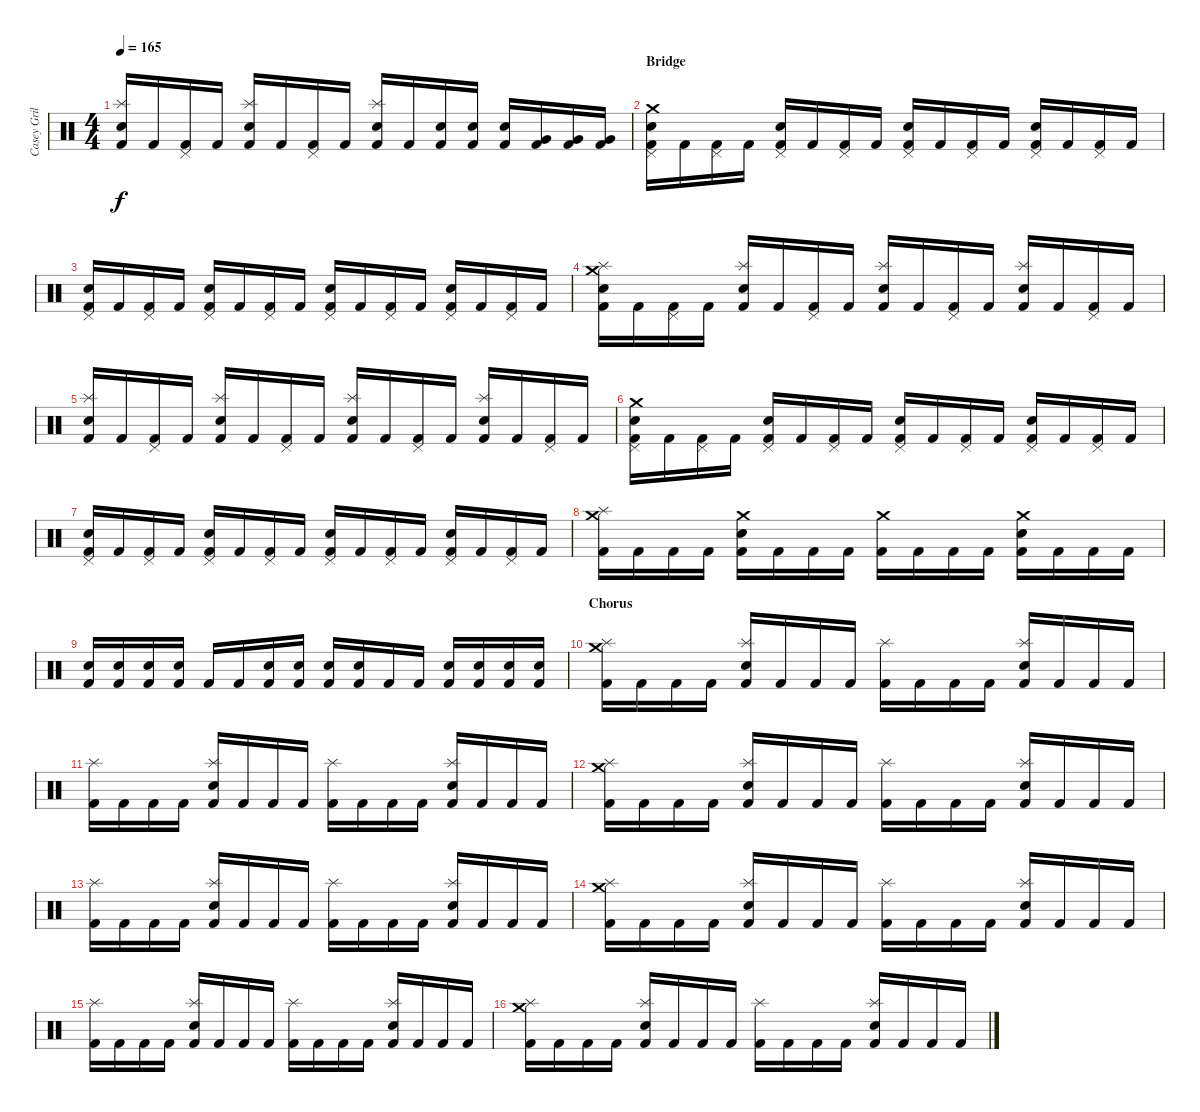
\track ("Casey Grillo" "Casey Gril") {instrument percussion}
\staff {score}
\articulation defaults
\ts (4 4)
\tempo 165
\clef neutral
\ks c
("Electric Snare (hit)" "Splash (hit)" "Kick (hit) 2").16{dy f} "Kick (hit) 2".16 ("Pedal Hi-Hat (hit)" "Kick (hit) 2").16 "Kick (hit) 2".16 ("Electric Snare (hit)" "Splash (hit)" "Kick (hit) 2").16 "Kick (hit) 2".16 ("Pedal Hi-Hat (hit)" "Kick (hit) 2").16 "Kick (hit) 2".16 ("Electric Snare (hit)" "Splash (hit)" "Kick (hit) 2").16 "Kick (hit) 2".16 ("Electric Snare (hit)" "Kick (hit) 2").16 ("Electric Snare (hit)" "Kick (hit) 2").16 ("Electric Snare (hit)" "Kick (hit) 2").16 ("Very Low Tom (hit)" "Kick (hit) 2").16 ("Very Low Tom (hit)" "Kick (hit) 2").16 ("Very Low Tom (hit)" "Kick (hit) 2").16 |
\section ("" "Bridge")
("Electric Snare (hit)" "Pedal Hi-Hat (hit)" "Crash medium (hit)" "Kick (hit) 2").16 "Kick (hit) 2".16 ("Pedal Hi-Hat (hit)" "Kick (hit) 2").16 "Kick (hit) 2".16 ("Electric Snare (hit)" "Pedal Hi-Hat (hit)" "Kick (hit) 2").16 "Kick (hit) 2".16 ("Pedal Hi-Hat (hit)" "Kick (hit) 2").16 "Kick (hit) 2".16 ("Electric Snare (hit)" "Pedal Hi-Hat (hit)" "Kick (hit) 2").16 "Kick (hit) 2".16 ("Pedal Hi-Hat (hit)" "Kick (hit) 2").16 "Kick (hit) 2".16 ("Electric Snare (hit)" "Pedal Hi-Hat (hit)" "Kick (hit) 2").16 "Kick (hit) 2".16 ("Pedal Hi-Hat (hit)" "Kick (hit) 2").16 "Kick (hit) 2".16 |
("Electric Snare (hit)" "Pedal Hi-Hat (hit)" "Kick (hit) 2").16 "Kick (hit) 2".16 ("Pedal Hi-Hat (hit)" "Kick (hit) 2").16 "Kick (hit) 2".16 ("Electric Snare (hit)" "Pedal Hi-Hat (hit)" "Kick (hit) 2").16 "Kick (hit) 2".16 ("Pedal Hi-Hat (hit)" "Kick (hit) 2").16 "Kick (hit) 2".16 ("Electric Snare (hit)" "Pedal Hi-Hat (hit)" "Kick (hit) 2").16 "Kick (hit) 2".16 ("Pedal Hi-Hat (hit)" "Kick (hit) 2").16 "Kick (hit) 2".16 ("Electric Snare (hit)" "Pedal Hi-Hat (hit)" "Kick (hit) 2").16 "Kick (hit) 2".16 ("Pedal Hi-Hat (hit)" "Kick (hit) 2").16 "Kick (hit) 2".16 |
("Electric Snare (hit)" "Splash (hit)" "Crash medium (hit)" "Kick (hit) 2").16 "Kick (hit) 2".16 ("Pedal Hi-Hat (hit)" "Kick (hit) 2").16 "Kick (hit) 2".16 ("Electric Snare (hit)" "Splash (hit)" "Kick (hit) 2").16 "Kick (hit) 2".16 ("Pedal Hi-Hat (hit)" "Kick (hit) 2").16 "Kick (hit) 2".16 ("Electric Snare (hit)" "Splash (hit)" "Kick (hit) 2").16 "Kick (hit) 2".16 ("Pedal Hi-Hat (hit)" "Kick (hit) 2").16 "Kick (hit) 2".16 ("Electric Snare (hit)" "Splash (hit)" "Kick (hit) 2").16 "Kick (hit) 2".16 ("Pedal Hi-Hat (hit)" "Kick (hit) 2").16 "Kick (hit) 2".16 |
("Electric Snare (hit)" "Splash (hit)" "Kick (hit) 2").16 "Kick (hit) 2".16 ("Pedal Hi-Hat (hit)" "Kick (hit) 2").16 "Kick (hit) 2".16 ("Electric Snare (hit)" "Splash (hit)" "Kick (hit) 2").16 "Kick (hit) 2".16 ("Pedal Hi-Hat (hit)" "Kick (hit) 2").16 "Kick (hit) 2".16 ("Electric Snare (hit)" "Splash (hit)" "Kick (hit) 2").16 "Kick (hit) 2".16 ("Pedal Hi-Hat (hit)" "Kick (hit) 2").16 "Kick (hit) 2".16 ("Electric Snare (hit)" "Splash (hit)" "Kick (hit) 2").16 "Kick (hit) 2".16 ("Pedal Hi-Hat (hit)" "Kick (hit) 2").16 "Kick (hit) 2".16 |
("Electric Snare (hit)" "Pedal Hi-Hat (hit)" "Crash medium (hit)" "Kick (hit) 2").16 "Kick (hit) 2".16 ("Pedal Hi-Hat (hit)" "Kick (hit) 2").16 "Kick (hit) 2".16 ("Electric Snare (hit)" "Pedal Hi-Hat (hit)" "Kick (hit) 2").16 "Kick (hit) 2".16 ("Pedal Hi-Hat (hit)" "Kick (hit) 2").16 "Kick (hit) 2".16 ("Electric Snare (hit)" "Pedal Hi-Hat (hit)" "Kick (hit) 2").16 "Kick (hit) 2".16 ("Pedal Hi-Hat (hit)" "Kick (hit) 2").16 "Kick (hit) 2".16 ("Electric Snare (hit)" "Pedal Hi-Hat (hit)" "Kick (hit) 2").16 "Kick (hit) 2".16 ("Pedal Hi-Hat (hit)" "Kick (hit) 2").16 "Kick (hit) 2".16 |
("Electric Snare (hit)" "Pedal Hi-Hat (hit)" "Kick (hit) 2").16 "Kick (hit) 2".16 ("Pedal Hi-Hat (hit)" "Kick (hit) 2").16 "Kick (hit) 2".16 ("Electric Snare (hit)" "Pedal Hi-Hat (hit)" "Kick (hit) 2").16 "Kick (hit) 2".16 ("Pedal Hi-Hat (hit)" "Kick (hit) 2").16 "Kick (hit) 2".16 ("Electric Snare (hit)" "Pedal Hi-Hat (hit)" "Kick (hit) 2").16 "Kick (hit) 2".16 ("Pedal Hi-Hat (hit)" "Kick (hit) 2").16 "Kick (hit) 2".16 ("Electric Snare (hit)" "Pedal Hi-Hat (hit)" "Kick (hit) 2").16 "Kick (hit) 2".16 ("Pedal Hi-Hat (hit)" "Kick (hit) 2").16 "Kick (hit) 2".16 |
("Splash (hit)" "Crash medium (hit)" "Kick (hit) 2").16 "Kick (hit) 2".16 "Kick (hit) 2".16 "Kick (hit) 2".16 ("Electric Snare (hit)" "Crash medium (hit)" "Kick (hit) 2").16 "Kick (hit) 2".16 "Kick (hit) 2".16 "Kick (hit) 2".16 ("Crash medium (hit)" "Kick (hit) 2").16 "Kick (hit) 2".16 "Kick (hit) 2".16 "Kick (hit) 2".16 ("Electric Snare (hit)" "Crash medium (hit)" "Kick (hit) 2").16 "Kick (hit) 2".16 "Kick (hit) 2".16 "Kick (hit) 2".16 |
("Electric Snare (hit)" "Kick (hit) 2").16 ("Electric Snare (hit)" "Kick (hit) 2").16 ("Electric Snare (hit)" "Kick (hit) 2").16 ("Electric Snare (hit)" "Kick (hit) 2").16 "Kick (hit) 2".16 "Kick (hit) 2".16 ("Electric Snare (hit)" "Kick (hit) 2").16 ("Electric Snare (hit)" "Kick (hit) 2").16 ("Electric Snare (hit)" "Kick (hit) 2").16 ("Electric Snare (hit)" "Kick (hit) 2").16 "Kick (hit) 2".16 "Kick (hit) 2".16 ("Electric Snare (hit)" "Kick (hit) 2").16 ("Electric Snare (hit)" "Kick (hit) 2").16 ("Electric Snare (hit)" "Kick (hit) 2").16 ("Electric Snare (hit)" "Kick (hit) 2").16 |
\section ("" "Chorus")
("Splash (hit)" "Crash medium (hit)" "Kick (hit) 2").16 "Kick (hit) 2".16 "Kick (hit) 2".16 "Kick (hit) 2".16 ("Electric Snare (hit)" "Splash (hit)" "Kick (hit) 2").16 "Kick (hit) 2".16 "Kick (hit) 2".16 "Kick (hit) 2".16 ("Splash (hit)" "Kick (hit) 2").16 "Kick (hit) 2".16 "Kick (hit) 2".16 "Kick (hit) 2".16 ("Electric Snare (hit)" "Splash (hit)" "Kick (hit) 2").16 "Kick (hit) 2".16 "Kick (hit) 2".16 "Kick (hit) 2".16 |
("Splash (hit)" "Kick (hit) 2").16 "Kick (hit) 2".16 "Kick (hit) 2".16 "Kick (hit) 2".16 ("Electric Snare (hit)" "Splash (hit)" "Kick (hit) 2").16 "Kick (hit) 2".16 "Kick (hit) 2".16 "Kick (hit) 2".16 ("Splash (hit)" "Kick (hit) 2").16 "Kick (hit) 2".16 "Kick (hit) 2".16 "Kick (hit) 2".16 ("Electric Snare (hit)" "Splash (hit)" "Kick (hit) 2").16 "Kick (hit) 2".16 "Kick (hit) 2".16 "Kick (hit) 2".16 |
("Splash (hit)" "Crash medium (hit)" "Kick (hit) 2").16 "Kick (hit) 2".16 "Kick (hit) 2".16 "Kick (hit) 2".16 ("Electric Snare (hit)" "Splash (hit)" "Kick (hit) 2").16 "Kick (hit) 2".16 "Kick (hit) 2".16 "Kick (hit) 2".16 ("Splash (hit)" "Kick (hit) 2").16 "Kick (hit) 2".16 "Kick (hit) 2".16 "Kick (hit) 2".16 ("Electric Snare (hit)" "Splash (hit)" "Kick (hit) 2").16 "Kick (hit) 2".16 "Kick (hit) 2".16 "Kick (hit) 2".16 |
("Splash (hit)" "Kick (hit) 2").16 "Kick (hit) 2".16 "Kick (hit) 2".16 "Kick (hit) 2".16 ("Electric Snare (hit)" "Splash (hit)" "Kick (hit) 2").16 "Kick (hit) 2".16 "Kick (hit) 2".16 "Kick (hit) 2".16 ("Splash (hit)" "Kick (hit) 2").16 "Kick (hit) 2".16 "Kick (hit) 2".16 "Kick (hit) 2".16 ("Electric Snare (hit)" "Splash (hit)" "Kick (hit) 2").16 "Kick (hit) 2".16 "Kick (hit) 2".16 "Kick (hit) 2".16 |
("Splash (hit)" "Crash medium (hit)" "Kick (hit) 2").16 "Kick (hit) 2".16 "Kick (hit) 2".16 "Kick (hit) 2".16 ("Electric Snare (hit)" "Splash (hit)" "Kick (hit) 2").16 "Kick (hit) 2".16 "Kick (hit) 2".16 "Kick (hit) 2".16 ("Splash (hit)" "Kick (hit) 2").16 "Kick (hit) 2".16 "Kick (hit) 2".16 "Kick (hit) 2".16 ("Electric Snare (hit)" "Splash (hit)" "Kick (hit) 2").16 "Kick (hit) 2".16 "Kick (hit) 2".16 "Kick (hit) 2".16 |
("Splash (hit)" "Kick (hit) 2").16 "Kick (hit) 2".16 "Kick (hit) 2".16 "Kick (hit) 2".16 ("Electric Snare (hit)" "Splash (hit)" "Kick (hit) 2").16 "Kick (hit) 2".16 "Kick (hit) 2".16 "Kick (hit) 2".16 ("Splash (hit)" "Kick (hit) 2").16 "Kick (hit) 2".16 "Kick (hit) 2".16 "Kick (hit) 2".16 ("Electric Snare (hit)" "Splash (hit)" "Kick (hit) 2").16 "Kick (hit) 2".16 "Kick (hit) 2".16 "Kick (hit) 2".16 |
("Splash (hit)" "Crash medium (hit)" "Kick (hit) 2").16 "Kick (hit) 2".16 "Kick (hit) 2".16 "Kick (hit) 2".16 ("Electric Snare (hit)" "Splash (hit)" "Kick (hit) 2").16 "Kick (hit) 2".16 "Kick (hit) 2".16 "Kick (hit) 2".16 ("Splash (hit)" "Kick (hit) 2").16 "Kick (hit) 2".16 "Kick (hit) 2".16 "Kick (hit) 2".16 ("Electric Snare (hit)" "Splash (hit)" "Kick (hit) 2").16 "Kick (hit) 2".16 "Kick (hit) 2".16 "Kick (hit) 2".16
